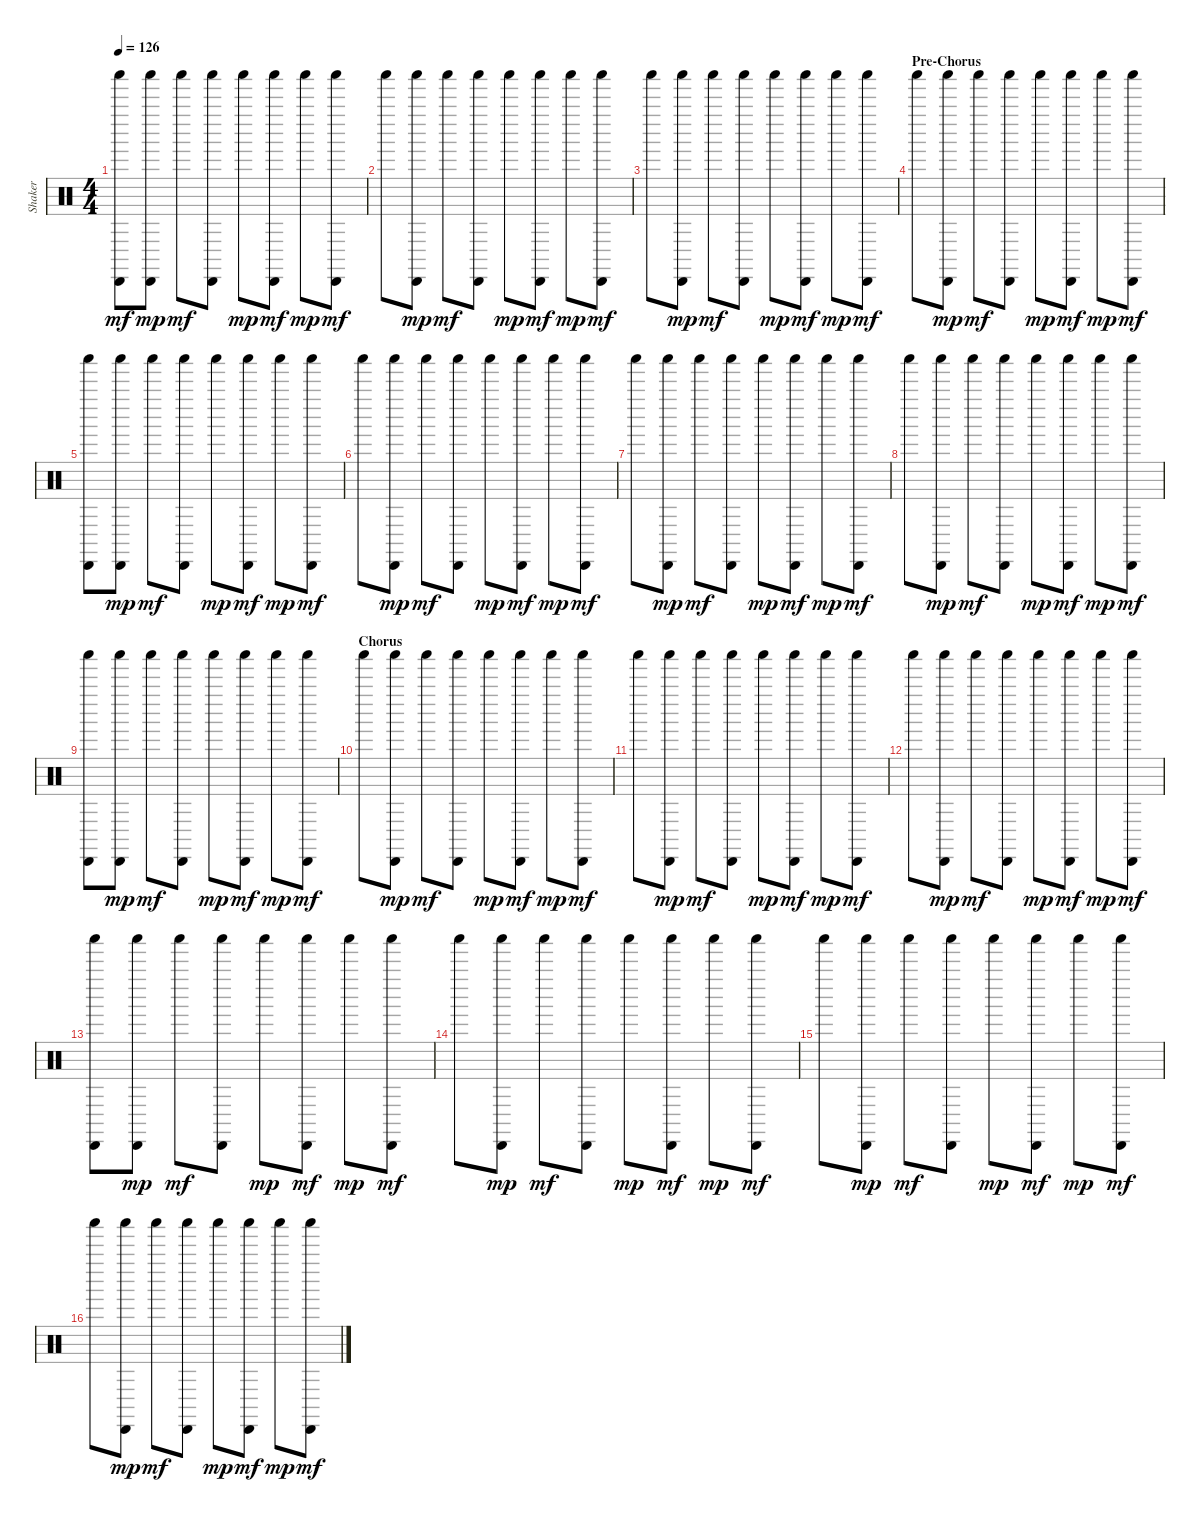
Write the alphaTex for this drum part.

\track ("Shaker" "Shaker") {instrument percussion}
\staff {score}
\articulation defaults
\ts (4 4)
\tempo 126
\clef neutral
\ks c
("Cabasa (hit)" "Shaker (hit)").8{dy mf} ("Cabasa (hit)" "Shaker (hit)").8{dy mp} "Shaker (hit)".8{dy mf} ("Cabasa (hit)" "Shaker (hit)").8 "Shaker (hit)".8{dy mp} ("Cabasa (hit)" "Shaker (hit)").8{dy mf} "Shaker (hit)".8{dy mp} ("Cabasa (hit)" "Shaker (hit)").8{dy mf} |
"Shaker (hit)".8 ("Cabasa (hit)" "Shaker (hit)").8{dy mp} "Shaker (hit)".8{dy mf} ("Cabasa (hit)" "Shaker (hit)").8 "Shaker (hit)".8{dy mp} ("Cabasa (hit)" "Shaker (hit)").8{dy mf} "Shaker (hit)".8{dy mp} ("Cabasa (hit)" "Shaker (hit)").8{dy mf} |
"Shaker (hit)".8 ("Cabasa (hit)" "Shaker (hit)").8{dy mp} "Shaker (hit)".8{dy mf} ("Cabasa (hit)" "Shaker (hit)").8 "Shaker (hit)".8{dy mp} ("Cabasa (hit)" "Shaker (hit)").8{dy mf} "Shaker (hit)".8{dy mp} ("Cabasa (hit)" "Shaker (hit)").8{dy mf} |
\section ("" "Pre-Chorus")
"Shaker (hit)".8 ("Cabasa (hit)" "Shaker (hit)").8{dy mp} "Shaker (hit)".8{dy mf} ("Cabasa (hit)" "Shaker (hit)").8 "Shaker (hit)".8{dy mp} ("Cabasa (hit)" "Shaker (hit)").8{dy mf} "Shaker (hit)".8{dy mp} ("Cabasa (hit)" "Shaker (hit)").8{dy mf} |
("Cabasa (hit)" "Shaker (hit)").8 ("Cabasa (hit)" "Shaker (hit)").8{dy mp} "Shaker (hit)".8{dy mf} ("Cabasa (hit)" "Shaker (hit)").8 "Shaker (hit)".8{dy mp} ("Cabasa (hit)" "Shaker (hit)").8{dy mf} "Shaker (hit)".8{dy mp} ("Cabasa (hit)" "Shaker (hit)").8{dy mf} |
"Shaker (hit)".8 ("Cabasa (hit)" "Shaker (hit)").8{dy mp} "Shaker (hit)".8{dy mf} ("Cabasa (hit)" "Shaker (hit)").8 "Shaker (hit)".8{dy mp} ("Cabasa (hit)" "Shaker (hit)").8{dy mf} "Shaker (hit)".8{dy mp} ("Cabasa (hit)" "Shaker (hit)").8{dy mf} |
"Shaker (hit)".8 ("Cabasa (hit)" "Shaker (hit)").8{dy mp} "Shaker (hit)".8{dy mf} ("Cabasa (hit)" "Shaker (hit)").8 "Shaker (hit)".8{dy mp} ("Cabasa (hit)" "Shaker (hit)").8{dy mf} "Shaker (hit)".8{dy mp} ("Cabasa (hit)" "Shaker (hit)").8{dy mf} |
"Shaker (hit)".8 ("Cabasa (hit)" "Shaker (hit)").8{dy mp} "Shaker (hit)".8{dy mf} ("Cabasa (hit)" "Shaker (hit)").8 "Shaker (hit)".8{dy mp} ("Cabasa (hit)" "Shaker (hit)").8{dy mf} "Shaker (hit)".8{dy mp} ("Cabasa (hit)" "Shaker (hit)").8{dy mf} |
("Cabasa (hit)" "Shaker (hit)").8 ("Cabasa (hit)" "Shaker (hit)").8{dy mp} "Shaker (hit)".8{dy mf} ("Cabasa (hit)" "Shaker (hit)").8 "Shaker (hit)".8{dy mp} ("Cabasa (hit)" "Shaker (hit)").8{dy mf} "Shaker (hit)".8{dy mp} ("Cabasa (hit)" "Shaker (hit)").8{dy mf} |
\section ("" "Chorus")
"Shaker (hit)".8 ("Cabasa (hit)" "Shaker (hit)").8{dy mp} "Shaker (hit)".8{dy mf} ("Cabasa (hit)" "Shaker (hit)").8 "Shaker (hit)".8{dy mp} ("Cabasa (hit)" "Shaker (hit)").8{dy mf} "Shaker (hit)".8{dy mp} ("Cabasa (hit)" "Shaker (hit)").8{dy mf} |
"Shaker (hit)".8 ("Cabasa (hit)" "Shaker (hit)").8{dy mp} "Shaker (hit)".8{dy mf} ("Cabasa (hit)" "Shaker (hit)").8 "Shaker (hit)".8{dy mp} ("Cabasa (hit)" "Shaker (hit)").8{dy mf} "Shaker (hit)".8{dy mp} ("Cabasa (hit)" "Shaker (hit)").8{dy mf} |
"Shaker (hit)".8 ("Cabasa (hit)" "Shaker (hit)").8{dy mp} "Shaker (hit)".8{dy mf} ("Cabasa (hit)" "Shaker (hit)").8 "Shaker (hit)".8{dy mp} ("Cabasa (hit)" "Shaker (hit)").8{dy mf} "Shaker (hit)".8{dy mp} ("Cabasa (hit)" "Shaker (hit)").8{dy mf} |
("Cabasa (hit)" "Shaker (hit)").8 ("Cabasa (hit)" "Shaker (hit)").8{dy mp} "Shaker (hit)".8{dy mf} ("Cabasa (hit)" "Shaker (hit)").8 "Shaker (hit)".8{dy mp} ("Cabasa (hit)" "Shaker (hit)").8{dy mf} "Shaker (hit)".8{dy mp} ("Cabasa (hit)" "Shaker (hit)").8{dy mf} |
"Shaker (hit)".8 ("Cabasa (hit)" "Shaker (hit)").8{dy mp} "Shaker (hit)".8{dy mf} ("Cabasa (hit)" "Shaker (hit)").8 "Shaker (hit)".8{dy mp} ("Cabasa (hit)" "Shaker (hit)").8{dy mf} "Shaker (hit)".8{dy mp} ("Cabasa (hit)" "Shaker (hit)").8{dy mf} |
"Shaker (hit)".8 ("Cabasa (hit)" "Shaker (hit)").8{dy mp} "Shaker (hit)".8{dy mf} ("Cabasa (hit)" "Shaker (hit)").8 "Shaker (hit)".8{dy mp} ("Cabasa (hit)" "Shaker (hit)").8{dy mf} "Shaker (hit)".8{dy mp} ("Cabasa (hit)" "Shaker (hit)").8{dy mf} |
"Shaker (hit)".8 ("Cabasa (hit)" "Shaker (hit)").8{dy mp} "Shaker (hit)".8{dy mf} ("Cabasa (hit)" "Shaker (hit)").8 "Shaker (hit)".8{dy mp} ("Cabasa (hit)" "Shaker (hit)").8{dy mf} "Shaker (hit)".8{dy mp} ("Cabasa (hit)" "Shaker (hit)").8{dy mf}
